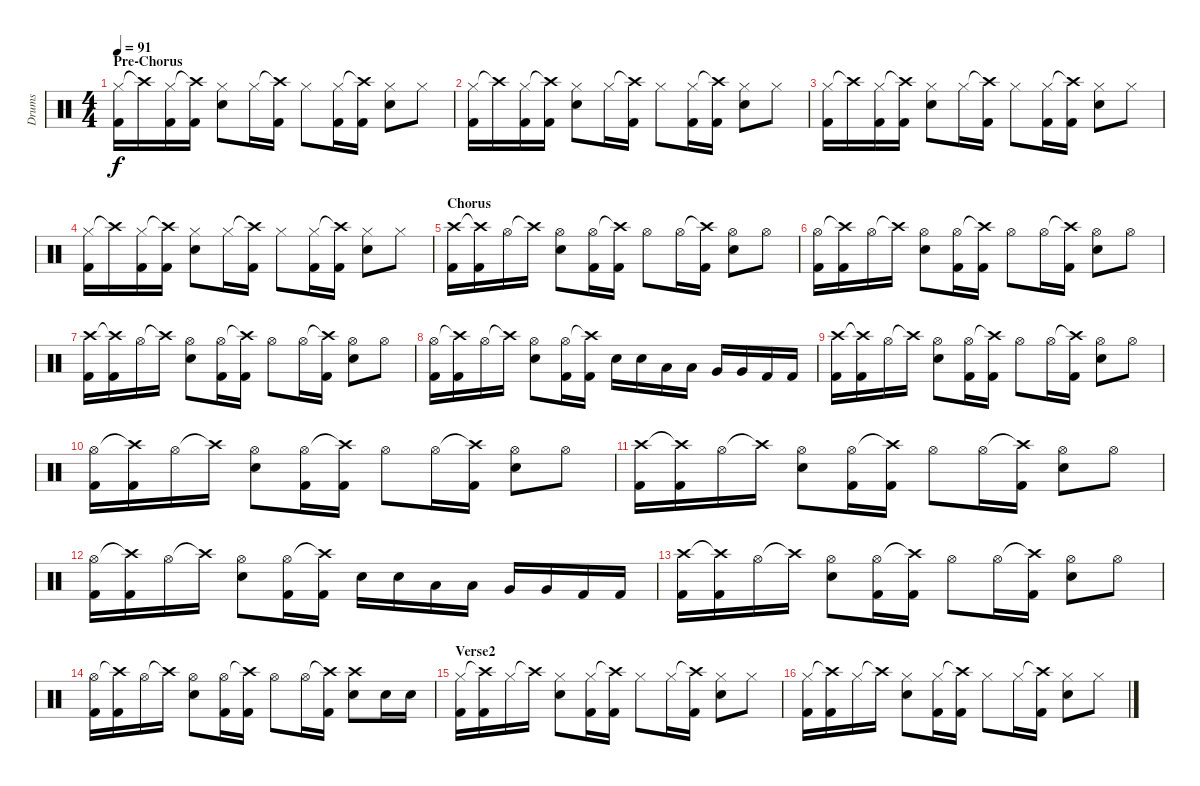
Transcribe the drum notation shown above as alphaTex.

\track ("Drums" "Drums") {instrument percussion}
\staff {score}
\articulation defaults
\ts (4 4)
\section ("" "Pre-Chorus")
\tempo 91
\clef neutral
\ks c
("Hi-Hat (closed)" "Kick (hit) 2").16{dy f} "Crash high (hit)"{t}.16 ("Hi-Hat (closed)" "Kick (hit) 2").16 ("Crash high (hit)"{t} "Kick (hit) 2").16 ("Hi-Hat (closed)" "Electric Snare (hit)").8 "Hi-Hat (closed)".16 ("Crash high (hit)"{t} "Kick (hit) 2").16 "Hi-Hat (closed)".8 ("Hi-Hat (closed)" "Kick (hit) 2").16 ("Crash high (hit)"{t} "Kick (hit) 2").16 ("Hi-Hat (closed)" "Electric Snare (hit)").8 "Hi-Hat (closed)".8 |
("Hi-Hat (closed)" "Kick (hit) 2").16 "Crash high (hit)"{t}.16 ("Hi-Hat (closed)" "Kick (hit) 2").16 ("Crash high (hit)"{t} "Kick (hit) 2").16 ("Hi-Hat (closed)" "Electric Snare (hit)").8 "Hi-Hat (closed)".16 ("Crash high (hit)"{t} "Kick (hit) 2").16 "Hi-Hat (closed)".8 ("Hi-Hat (closed)" "Kick (hit) 2").16 ("Crash high (hit)"{t} "Kick (hit) 2").16 ("Hi-Hat (closed)" "Electric Snare (hit)").8 "Hi-Hat (closed)".8 |
("Hi-Hat (closed)" "Kick (hit) 2").16 "Crash high (hit)"{t}.16 ("Hi-Hat (closed)" "Kick (hit) 2").16 ("Crash high (hit)"{t} "Kick (hit) 2").16 ("Hi-Hat (closed)" "Electric Snare (hit)").8 "Hi-Hat (closed)".16 ("Crash high (hit)"{t} "Kick (hit) 2").16 "Hi-Hat (closed)".8 ("Hi-Hat (closed)" "Kick (hit) 2").16 ("Crash high (hit)"{t} "Kick (hit) 2").16 ("Hi-Hat (closed)" "Electric Snare (hit)").8 "Hi-Hat (closed)".8 |
("Hi-Hat (closed)" "Kick (hit) 2").16 "Crash high (hit)"{t}.16 ("Hi-Hat (closed)" "Kick (hit) 2").16 ("Crash high (hit)"{t} "Kick (hit) 2").16 ("Hi-Hat (closed)" "Electric Snare (hit)").8 "Hi-Hat (closed)".16 ("Crash high (hit)"{t} "Kick (hit) 2").16 "Hi-Hat (closed)".8 ("Hi-Hat (closed)" "Kick (hit) 2").16 ("Crash high (hit)"{t} "Kick (hit) 2").16 ("Hi-Hat (closed)" "Electric Snare (hit)").8 "Hi-Hat (closed)".8 |
\section ("" "Chorus")
("Crash high (hit)" "Kick (hit) 2").16 ("Crash high (hit)"{t} "Kick (hit) 2").16 "Hi-Hat (open)".16 "Crash high (hit)"{t}.16 ("Hi-Hat (open)" "Electric Snare (hit)").8 ("Hi-Hat (open)" "Kick (hit) 2").16 ("Crash high (hit)"{t} "Kick (hit) 2").16 "Hi-Hat (open)".8 "Hi-Hat (open)".16 ("Crash high (hit)"{t} "Kick (hit) 2").16 ("Hi-Hat (open)" "Electric Snare (hit)").8 "Hi-Hat (open)".8 |
("Hi-Hat (open)" "Kick (hit) 2").16 ("Crash high (hit)"{t} "Kick (hit) 2").16 "Hi-Hat (open)".16 "Crash high (hit)"{t}.16 ("Hi-Hat (open)" "Electric Snare (hit)").8 ("Hi-Hat (open)" "Kick (hit) 2").16 ("Crash high (hit)"{t} "Kick (hit) 2").16 "Hi-Hat (open)".8 "Hi-Hat (open)".16 ("Crash high (hit)"{t} "Kick (hit) 2").16 ("Hi-Hat (open)" "Electric Snare (hit)").8 "Hi-Hat (open)".8 |
("Crash high (hit)" "Kick (hit) 2").16 ("Crash high (hit)"{t} "Kick (hit) 2").16 "Hi-Hat (open)".16 "Crash high (hit)"{t}.16 ("Hi-Hat (open)" "Electric Snare (hit)").8 ("Hi-Hat (open)" "Kick (hit) 2").16 ("Crash high (hit)"{t} "Kick (hit) 2").16 "Hi-Hat (open)".8 "Hi-Hat (open)".16 ("Crash high (hit)"{t} "Kick (hit) 2").16 ("Hi-Hat (open)" "Electric Snare (hit)").8 "Hi-Hat (open)".8 |
("Hi-Hat (open)" "Kick (hit) 2").16 ("Crash high (hit)"{t} "Kick (hit) 2").16 "Hi-Hat (open)".16 "Crash high (hit)"{t}.16 ("Hi-Hat (open)" "Electric Snare (hit)").8 ("Hi-Hat (open)" "Kick (hit) 2").16 ("Crash high (hit)"{t} "Kick (hit) 2").16 "Electric Snare (hit)".16 "Electric Snare (hit)".16 "Low Tom (hit)".16 "Low Tom (hit)".16 "Very Low Tom (hit)".16 "Very Low Tom (hit)".16 "Kick (hit) 2".16 "Kick (hit) 2".16 |
("Crash high (hit)" "Kick (hit) 2").16 ("Crash high (hit)"{t} "Kick (hit) 2").16 "Hi-Hat (open)".16 "Crash high (hit)"{t}.16 ("Hi-Hat (open)" "Electric Snare (hit)").8 ("Hi-Hat (open)" "Kick (hit) 2").16 ("Crash high (hit)"{t} "Kick (hit) 2").16 "Hi-Hat (open)".8 "Hi-Hat (open)".16 ("Crash high (hit)"{t} "Kick (hit) 2").16 ("Hi-Hat (open)" "Electric Snare (hit)").8 "Hi-Hat (open)".8 |
("Hi-Hat (open)" "Kick (hit) 2").16 ("Crash high (hit)"{t} "Kick (hit) 2").16 "Hi-Hat (open)".16 "Crash high (hit)"{t}.16 ("Hi-Hat (open)" "Electric Snare (hit)").8 ("Hi-Hat (open)" "Kick (hit) 2").16 ("Crash high (hit)"{t} "Kick (hit) 2").16 "Hi-Hat (open)".8 "Hi-Hat (open)".16 ("Crash high (hit)"{t} "Kick (hit) 2").16 ("Hi-Hat (open)" "Electric Snare (hit)").8 "Hi-Hat (open)".8 |
("Crash high (hit)" "Kick (hit) 2").16 ("Crash high (hit)"{t} "Kick (hit) 2").16 "Hi-Hat (open)".16 "Crash high (hit)"{t}.16 ("Hi-Hat (open)" "Electric Snare (hit)").8 ("Hi-Hat (open)" "Kick (hit) 2").16 ("Crash high (hit)"{t} "Kick (hit) 2").16 "Hi-Hat (open)".8 "Hi-Hat (open)".16 ("Crash high (hit)"{t} "Kick (hit) 2").16 ("Hi-Hat (open)" "Electric Snare (hit)").8 "Hi-Hat (open)".8 |
("Hi-Hat (open)" "Kick (hit) 2").16 ("Crash high (hit)"{t} "Kick (hit) 2").16 "Hi-Hat (open)".16 "Crash high (hit)"{t}.16 ("Hi-Hat (open)" "Electric Snare (hit)").8 ("Hi-Hat (open)" "Kick (hit) 2").16 ("Crash high (hit)"{t} "Kick (hit) 2").16 "Electric Snare (hit)".16 "Electric Snare (hit)".16 "Low Tom (hit)".16 "Low Tom (hit)".16 "Very Low Tom (hit)".16 "Very Low Tom (hit)".16 "Kick (hit) 2".16 "Kick (hit) 2".16 |
("Crash high (hit)" "Kick (hit) 2").16 ("Crash high (hit)"{t} "Kick (hit) 2").16 "Hi-Hat (open)".16 "Crash high (hit)"{t}.16 ("Hi-Hat (open)" "Electric Snare (hit)").8 ("Hi-Hat (open)" "Kick (hit) 2").16 ("Crash high (hit)"{t} "Kick (hit) 2").16 "Hi-Hat (open)".8 "Hi-Hat (open)".16 ("Crash high (hit)"{t} "Kick (hit) 2").16 ("Hi-Hat (open)" "Electric Snare (hit)").8 "Hi-Hat (open)".8 |
("Hi-Hat (open)" "Kick (hit) 2").16 ("Crash high (hit)"{t} "Kick (hit) 2").16 "Hi-Hat (open)".16 "Crash high (hit)"{t}.16 ("Hi-Hat (open)" "Electric Snare (hit)").8 ("Hi-Hat (open)" "Kick (hit) 2").16 ("Crash high (hit)"{t} "Kick (hit) 2").16 "Hi-Hat (open)".8 "Hi-Hat (open)".16 ("Crash high (hit)"{t} "Kick (hit) 2").16 ("Crash high (hit)" "Electric Snare (hit)").8 "Electric Snare (hit)".16 "Electric Snare (hit)".16 |
\section ("" "Verse2")
("Hi-Hat (closed)" "Kick (hit) 2").16 ("Crash high (hit)"{t} "Kick (hit) 2").16 "Hi-Hat (closed)".16 "Crash high (hit)"{t}.16 ("Hi-Hat (closed)" "Electric Snare (hit)").8 ("Hi-Hat (closed)" "Kick (hit) 2").16 ("Crash high (hit)"{t} "Kick (hit) 2").16 "Hi-Hat (closed)".8 "Hi-Hat (closed)".16 ("Crash high (hit)"{t} "Kick (hit) 2").16 ("Hi-Hat (closed)" "Electric Snare (hit)").8 "Hi-Hat (closed)".8 |
("Hi-Hat (closed)" "Kick (hit) 2").16 ("Crash high (hit)"{t} "Kick (hit) 2").16 "Hi-Hat (closed)".16 "Crash high (hit)"{t}.16 ("Hi-Hat (closed)" "Electric Snare (hit)").8 ("Hi-Hat (closed)" "Kick (hit) 2").16 ("Crash high (hit)"{t} "Kick (hit) 2").16 "Hi-Hat (closed)".8 "Hi-Hat (closed)".16 ("Crash high (hit)"{t} "Kick (hit) 2").16 ("Hi-Hat (closed)" "Electric Snare (hit)").8 "Hi-Hat (closed)".8
